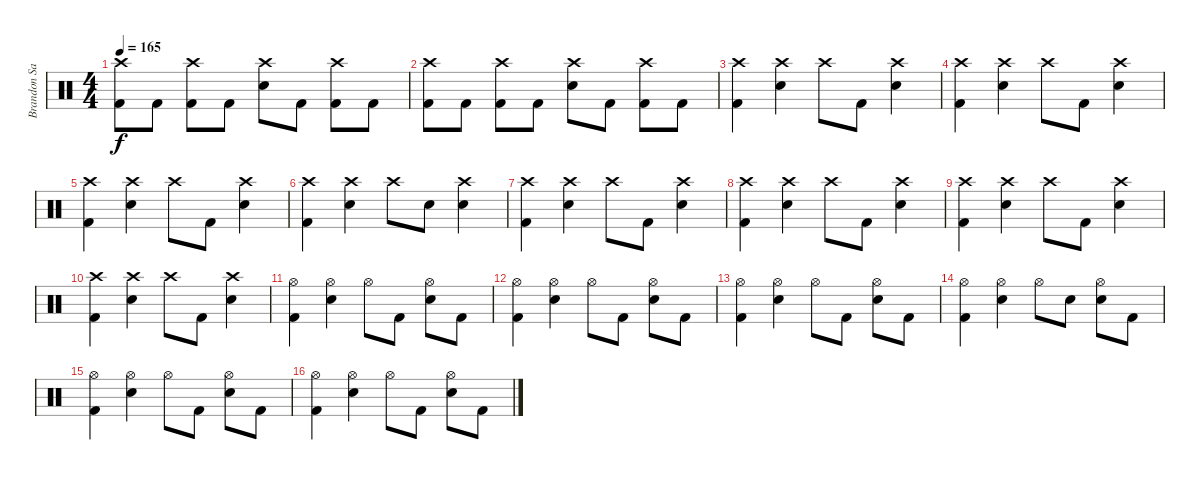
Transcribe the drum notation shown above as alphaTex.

\track ("Brandon Saller" "Brandon Sa") {instrument percussion}
\staff {score}
\articulation defaults
\ts (4 4)
\tempo 165
\clef neutral
\ks c
("Crash high (hit)" "Kick (hit) 2").8{dy f} "Kick (hit) 2".8 ("Crash high (hit)" "Kick (hit) 2").8 "Kick (hit) 2".8 ("Crash high (hit)" "Electric Snare (hit)").8 "Kick (hit) 2".8 ("Crash high (hit)" "Kick (hit) 2").8 "Kick (hit) 2".8 |
("Crash high (hit)" "Kick (hit) 2").8 "Kick (hit) 2".8 ("Crash high (hit)" "Kick (hit) 2").8 "Kick (hit) 2".8 ("Crash high (hit)" "Electric Snare (hit)").8 "Kick (hit) 2".8 ("Crash high (hit)" "Kick (hit) 2").8 "Kick (hit) 2".8 |
("Crash high (hit)" "Kick (hit) 2").4 ("Crash high (hit)" "Electric Snare (hit)").4 "Crash high (hit)".8 "Kick (hit) 2".8 ("Crash high (hit)" "Electric Snare (hit)").4 |
("Crash high (hit)" "Kick (hit) 2").4 ("Crash high (hit)" "Electric Snare (hit)").4 "Crash high (hit)".8 "Kick (hit) 2".8 ("Crash high (hit)" "Electric Snare (hit)").4 |
("Crash high (hit)" "Kick (hit) 2").4 ("Crash high (hit)" "Electric Snare (hit)").4 "Crash high (hit)".8 "Kick (hit) 2".8 ("Crash high (hit)" "Electric Snare (hit)").4 |
("Crash high (hit)" "Kick (hit) 2").4 ("Crash high (hit)" "Electric Snare (hit)").4 "Crash high (hit)".8 "Electric Snare (hit)".8 ("Crash high (hit)" "Electric Snare (hit)").4 |
("Crash high (hit)" "Kick (hit) 2").4 ("Crash high (hit)" "Electric Snare (hit)").4 "Crash high (hit)".8 "Kick (hit) 2".8 ("Crash high (hit)" "Electric Snare (hit)").4 |
("Crash high (hit)" "Kick (hit) 2").4 ("Crash high (hit)" "Electric Snare (hit)").4 "Crash high (hit)".8 "Kick (hit) 2".8 ("Crash high (hit)" "Electric Snare (hit)").4 |
("Crash high (hit)" "Kick (hit) 2").4 ("Crash high (hit)" "Electric Snare (hit)").4 "Crash high (hit)".8 "Kick (hit) 2".8 ("Crash high (hit)" "Electric Snare (hit)").4 |
("Crash high (hit)" "Kick (hit) 2").4 ("Crash high (hit)" "Electric Snare (hit)").4 "Crash high (hit)".8 "Kick (hit) 2".8 ("Crash high (hit)" "Electric Snare (hit)").4 |
("Hi-Hat (open)" "Kick (hit) 2").4 ("Hi-Hat (open)" "Electric Snare (hit)").4 "Hi-Hat (open)".8 "Kick (hit) 2".8 ("Hi-Hat (open)" "Electric Snare (hit)").8 "Kick (hit) 2".8 |
("Hi-Hat (open)" "Kick (hit) 2").4 ("Hi-Hat (open)" "Electric Snare (hit)").4 "Hi-Hat (open)".8 "Kick (hit) 2".8 ("Hi-Hat (open)" "Electric Snare (hit)").8 "Kick (hit) 2".8 |
("Hi-Hat (open)" "Kick (hit) 2").4 ("Hi-Hat (open)" "Electric Snare (hit)").4 "Hi-Hat (open)".8 "Kick (hit) 2".8 ("Hi-Hat (open)" "Electric Snare (hit)").8 "Kick (hit) 2".8 |
("Hi-Hat (open)" "Kick (hit) 2").4 ("Hi-Hat (open)" "Electric Snare (hit)").4 "Hi-Hat (open)".8 "Electric Snare (hit)".8 ("Hi-Hat (open)" "Electric Snare (hit)").8 "Kick (hit) 2".8 |
("Hi-Hat (open)" "Kick (hit) 2").4 ("Hi-Hat (open)" "Electric Snare (hit)").4 "Hi-Hat (open)".8 "Kick (hit) 2".8 ("Hi-Hat (open)" "Electric Snare (hit)").8 "Kick (hit) 2".8 |
("Hi-Hat (open)" "Kick (hit) 2").4 ("Hi-Hat (open)" "Electric Snare (hit)").4 "Hi-Hat (open)".8 "Kick (hit) 2".8 ("Hi-Hat (open)" "Electric Snare (hit)").8 "Kick (hit) 2".8
